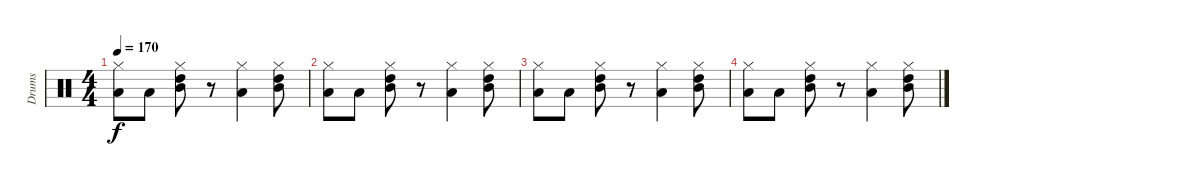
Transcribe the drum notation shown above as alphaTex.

\track ("Drums" "Drums") {instrument percussion}
\staff {score}
\articulation defaults
\ts (4 4)
\tempo 170
\clef neutral
\ks c
("Hi-Hat (closed)" "Low Floor Tom (hit)").8{dy f} "Low Floor Tom (hit)".8 ("Hi-Hat (closed)" "Mid Tom (hit)" "High Tom (hit)").8 r.8 ("Hi-Hat (closed)" "Low Floor Tom (hit)").4 ("Hi-Hat (closed)" "Mid Tom (hit)" "High Tom (hit)").8 |
("Hi-Hat (closed)" "Low Floor Tom (hit)").8 "Low Floor Tom (hit)".8 ("Hi-Hat (closed)" "Mid Tom (hit)" "High Tom (hit)").8 r.8 ("Hi-Hat (closed)" "Low Floor Tom (hit)").4 ("Hi-Hat (closed)" "Mid Tom (hit)" "High Tom (hit)").8 |
("Hi-Hat (closed)" "Low Floor Tom (hit)").8 "Low Floor Tom (hit)".8 ("Hi-Hat (closed)" "Mid Tom (hit)" "High Tom (hit)").8 r.8 ("Hi-Hat (closed)" "Low Floor Tom (hit)").4 ("Hi-Hat (closed)" "Mid Tom (hit)" "High Tom (hit)").8 |
("Hi-Hat (closed)" "Low Floor Tom (hit)").8 "Low Floor Tom (hit)".8 ("Hi-Hat (closed)" "Mid Tom (hit)" "High Tom (hit)").8 r.8 ("Hi-Hat (closed)" "Low Floor Tom (hit)").4 ("Hi-Hat (closed)" "Mid Tom (hit)" "High Tom (hit)").8
